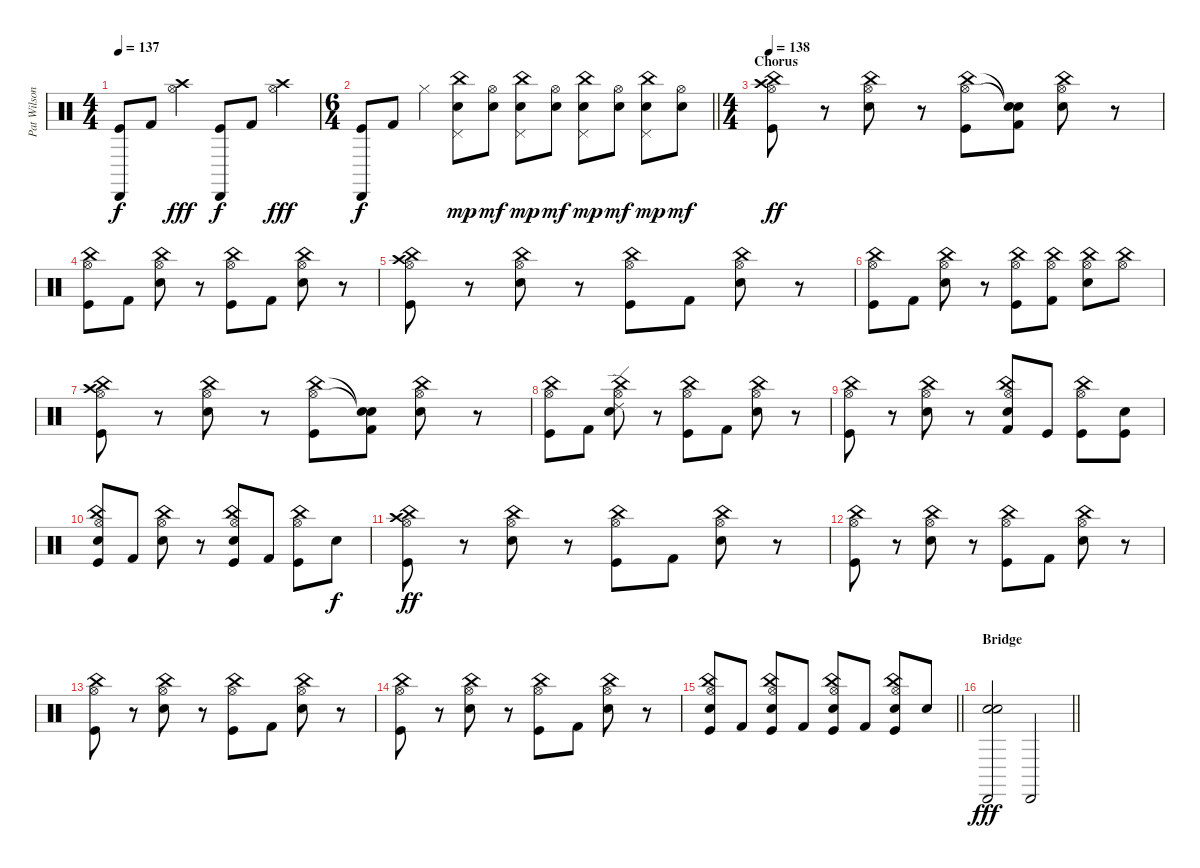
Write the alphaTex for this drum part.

\track ("Pat Wilson" "Pat Wilson") {instrument percussion}
\staff {score}
\articulation defaults
\ts (4 4)
\tempo 137
\clef neutral
\ks c
("Cabasa (hit)" "Kick (hit)").8{dy f} "Kick (hit) 2".8 ("Hi-Hat (open)" "Crash high (hit)").4{dy fff} ("Cabasa (hit)" "Kick (hit)").8{dy f} "Kick (hit) 2".8 ("Hi-Hat (open)" "Crash high (hit)").4{dy fff} |
\ts (6 4)
\barLineRight lightlight
("Cabasa (hit)" "Kick (hit)").8{dy f} "Kick (hit) 2".8 "Hi-Hat (closed)".4 ("China (hit)" "Pedal Hi-Hat (hit)" "Snare (hit) 2").8{dy mp} ("Hi-Hat (open)" "Electric Snare (hit)").8{dy mf} ("China (hit)" "Pedal Hi-Hat (hit)" "Snare (hit) 2").8{dy mp} ("Hi-Hat (open)" "Electric Snare (hit)").8{dy mf} ("China (hit)" "Pedal Hi-Hat (hit)" "Snare (hit) 2").8{dy mp} ("Hi-Hat (open)" "Electric Snare (hit)").8{dy mf} ("China (hit)" "Pedal Hi-Hat (hit)" "Snare (hit) 2").8{dy mp} ("Hi-Hat (open)" "Electric Snare (hit)").8{dy mf} |
\ts (4 4)
\section ("" "Chorus")
\tempo 138
("Hi-Hat (open)" "China (hit)" "Crash high (hit)" "Kick (hit)").8{dy ff} r.8 ("Hi-Hat (open)" "China (hit)" "Snare (hit) 2").8 r.8 ("Hi-Hat (open)" "China (hit)" "Kick (hit)").8 ("Snare (hit)"{t} "Snare (hit)"{t} "Kick (hit) 2").8 ("Hi-Hat (open)" "China (hit)" "Snare (hit) 2").8 r.8 |
("Hi-Hat (open)" "China (hit)" "Kick (hit)").8 "Kick (hit) 2".8 ("Hi-Hat (open)" "China (hit)" "Snare (hit) 2").8 r.8 ("Hi-Hat (open)" "China (hit)" "Kick (hit)").8 "Kick (hit) 2".8 ("Hi-Hat (open)" "China (hit)" "Snare (hit) 2").8 r.8 |
("Hi-Hat (open)" "China (hit)" "Crash high (hit)" "Kick (hit)").8 r.8 ("Hi-Hat (open)" "China (hit)" "Snare (hit) 2").8 r.8 ("Hi-Hat (open)" "China (hit)" "Kick (hit)").8 "Kick (hit) 2".8 ("Hi-Hat (open)" "China (hit)" "Snare (hit) 2").8 r.8 |
("Hi-Hat (open)" "China (hit)" "Kick (hit)").8 "Kick (hit) 2".8 ("Hi-Hat (open)" "China (hit)" "Snare (hit) 2").8 r.8 ("Hi-Hat (open)" "China (hit)" "Kick (hit)").8 ("Hi-Hat (open)" "China (hit)" "Kick (hit) 2").8 ("Hi-Hat (open)" "China (hit)" "Snare (hit) 2").8 ("Hi-Hat (open)" "China (hit)").8 |
("Hi-Hat (open)" "China (hit)" "Crash high (hit)" "Kick (hit)").8 r.8 ("Hi-Hat (open)" "China (hit)" "Snare (hit) 2").8 r.8 ("Hi-Hat (open)" "China (hit)" "Kick (hit)").8 ("Snare (hit)"{t} "Snare (hit)"{t} "Kick (hit) 2").8 ("Hi-Hat (open)" "China (hit)" "Snare (hit) 2").8 r.8 |
("Hi-Hat (open)" "China (hit)" "Kick (hit)").8 "Kick (hit) 2".8 ("Hi-Hat (open)" "China (hit)" "Ride (edge) 2" "Snare (hit) 2").8 r.8 ("Hi-Hat (open)" "China (hit)" "Kick (hit)").8 "Kick (hit) 2".8 ("Hi-Hat (open)" "China (hit)" "Snare (hit) 2").8 r.8 |
("Hi-Hat (open)" "China (hit)" "Kick (hit)").8 r.8 ("Hi-Hat (open)" "China (hit)" "Snare (hit) 2").8 r.8 ("Hi-Hat (open)" "China (hit)" "Snare (hit) 2" "Kick (hit) 2").8 "Kick (hit)".8 ("Hi-Hat (open)" "China (hit)" "Kick (hit)").8 ("Snare (hit) 2" "Kick (hit)").8 |
("Hi-Hat (open)" "China (hit)" "Snare (hit) 2" "Kick (hit)").8 "Kick (hit) 2".8 ("Hi-Hat (open)" "China (hit)" "Snare (hit) 2").8 r.8 ("Hi-Hat (open)" "China (hit)" "Snare (hit) 2" "Kick (hit)").8 "Kick (hit) 2".8 ("Hi-Hat (open)" "China (hit)" "Kick (hit)").8 "Snare (hit) 2".8{dy f} |
("Hi-Hat (open)" "China (hit)" "Crash high (hit)" "Kick (hit)").8{dy ff} r.8 ("Hi-Hat (open)" "China (hit)" "Snare (hit) 2").8 r.8 ("Hi-Hat (open)" "China (hit)" "Kick (hit)").8 "Kick (hit) 2".8 ("Hi-Hat (open)" "China (hit)" "Snare (hit) 2").8 r.8 |
("Hi-Hat (open)" "China (hit)" "Kick (hit)").8 r.8 ("Hi-Hat (open)" "China (hit)" "Snare (hit) 2").8 r.8 ("Hi-Hat (open)" "China (hit)" "Kick (hit)").8 "Kick (hit) 2".8 ("Hi-Hat (open)" "China (hit)" "Snare (hit) 2").8 r.8 |
("Hi-Hat (open)" "China (hit)" "Kick (hit)").8 r.8 ("Hi-Hat (open)" "China (hit)" "Snare (hit) 2").8 r.8 ("Hi-Hat (open)" "China (hit)" "Kick (hit)").8 "Kick (hit) 2".8 ("Hi-Hat (open)" "China (hit)" "Snare (hit) 2").8 r.8 |
("Hi-Hat (open)" "China (hit)" "Kick (hit)").8 r.8 ("Hi-Hat (open)" "China (hit)" "Snare (hit) 2").8 r.8 ("Hi-Hat (open)" "China (hit)" "Kick (hit)").8 "Kick (hit) 2".8 ("Hi-Hat (open)" "China (hit)" "Snare (hit) 2").8 r.8 |
\barLineRight lightlight
("Hi-Hat (open)" "China (hit)" "Snare (hit) 2" "Kick (hit)").8 "Kick (hit) 2".8 ("Hi-Hat (open)" "China (hit)" "Snare (hit) 2" "Kick (hit)").8 "Kick (hit) 2".8 ("Hi-Hat (open)" "China (hit)" "Snare (hit) 2" "Kick (hit)").8 "Kick (hit) 2".8 ("Hi-Hat (open)" "China (hit)" "Snare (hit) 2" "Kick (hit)").8 "Snare (hit)".8 |
\section ("" "Bridge")
\barLineRight lightlight
("Cabasa (hit)" "Snare (hit) 2" "Electric Snare (hit)").2{dy fff} "Cabasa (hit)".2
